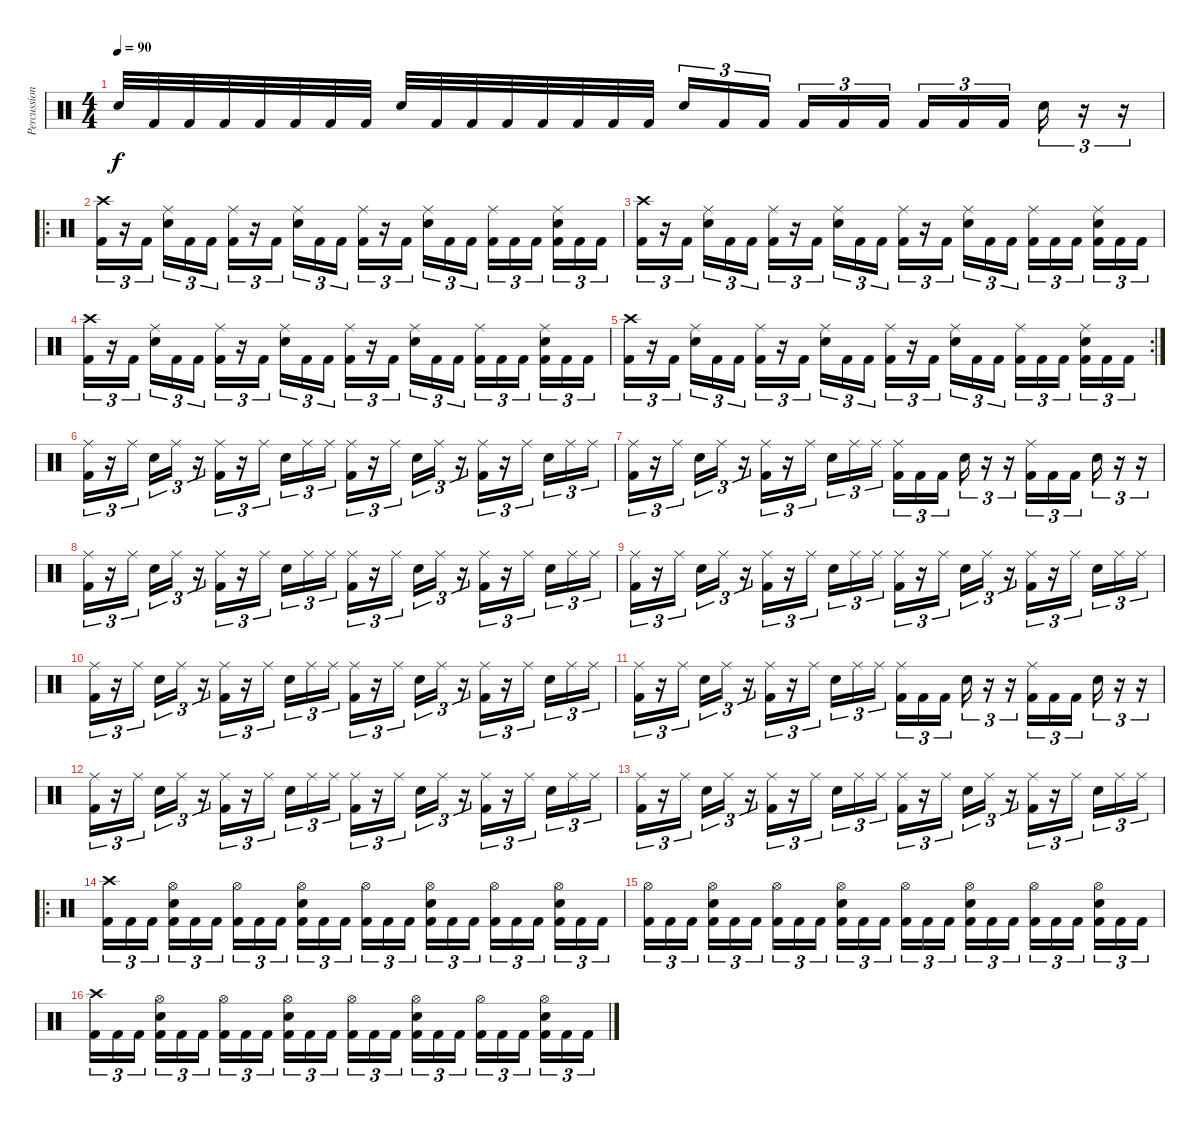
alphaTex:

\track ("Percussion" "Percussion") {instrument percussion}
\staff {score}
\articulation defaults
\ts (4 4)
\tempo 90
\clef neutral
\ks c "Electric Snare (hit)".32{dy f} "Kick (hit) 2".32 "Kick (hit) 2".32 "Kick (hit) 2".32 "Kick (hit) 2".32 "Kick (hit) 2".32 "Kick (hit) 2".32 "Kick (hit) 2".32 "Electric Snare (hit)".32 "Kick (hit) 2".32 "Kick (hit) 2".32 "Kick (hit) 2".32 "Kick (hit) 2".32 "Kick (hit) 2".32 "Kick (hit) 2".32 "Kick (hit) 2".32 "Electric Snare (hit)".16{tu (3 2)} "Kick (hit) 2".16{tu (3 2)} "Kick (hit) 2".16{tu (3 2)} "Kick (hit) 2".16{tu (3 2)} "Kick (hit) 2".16{tu (3 2)} "Kick (hit) 2".16{tu (3 2)} "Kick (hit) 2".16{tu (3 2)} "Kick (hit) 2".16{tu (3 2)} "Kick (hit) 2".16{tu (3 2)} "Electric Snare (hit)".16{tu (3 2)}
r.16{tu (3 2)} r.16{tu (3 2)} |
\ro
("Crash high (hit)" "Kick (hit) 2").16{tu (3 2)} r.16{tu (3 2)} "Kick (hit) 2".16{tu (3 2)} ("Ride (middle)" "Electric Snare (hit)").16{tu (3 2)} "Kick (hit) 2".16{tu (3 2)} "Kick (hit) 2".16{tu (3 2)} ("Ride (middle)" "Kick (hit) 2").16{tu (3 2)} r.16{tu (3 2)} "Kick (hit) 2".16{tu (3 2)} ("Ride (middle)" "Electric Snare (hit)").16{tu (3 2)} "Kick (hit) 2".16{tu (3 2)} "Kick (hit) 2".16{tu (3 2)} ("Ride (middle)" "Kick (hit) 2").16{tu (3 2)} r.16{tu (3 2)} "Kick (hit) 2".16{tu (3 2)} ("Ride (middle)" "Electric Snare (hit)").16{tu (3 2)} "Kick (hit) 2".16{tu (3 2)} "Kick (hit) 2".16{tu (3 2)} ("Ride (middle)" "Kick (hit) 2").16{tu (3 2)} "Kick (hit) 2".16{tu (3 2)} "Kick (hit) 2".16{tu (3 2)} ("Ride (middle)" "Electric Snare (hit)" "Kick (hit) 2").16{tu (3 2)} "Kick (hit) 2".16{tu (3 2)} "Kick (hit) 2".16{tu (3 2)} |
("Crash high (hit)" "Kick (hit) 2").16{tu (3 2)} r.16{tu (3 2)} "Kick (hit) 2".16{tu (3 2)} ("Ride (middle)" "Electric Snare (hit)").16{tu (3 2)} "Kick (hit) 2".16{tu (3 2)} "Kick (hit) 2".16{tu (3 2)} ("Ride (middle)" "Kick (hit) 2").16{tu (3 2)} r.16{tu (3 2)} "Kick (hit) 2".16{tu (3 2)} ("Ride (middle)" "Electric Snare (hit)").16{tu (3 2)} "Kick (hit) 2".16{tu (3 2)} "Kick (hit) 2".16{tu (3 2)} ("Ride (middle)" "Kick (hit) 2").16{tu (3 2)} r.16{tu (3 2)} "Kick (hit) 2".16{tu (3 2)} ("Ride (middle)" "Electric Snare (hit)").16{tu (3 2)} "Kick (hit) 2".16{tu (3 2)} "Kick (hit) 2".16{tu (3 2)} ("Ride (middle)" "Kick (hit) 2").16{tu (3 2)} "Kick (hit) 2".16{tu (3 2)} "Kick (hit) 2".16{tu (3 2)} ("Ride (middle)" "Electric Snare (hit)" "Kick (hit) 2").16{tu (3 2)} "Kick (hit) 2".16{tu (3 2)} "Kick (hit) 2".16{tu (3 2)} |
("Crash high (hit)" "Kick (hit) 2").16{tu (3 2)} r.16{tu (3 2)} "Kick (hit) 2".16{tu (3 2)} ("Ride (middle)" "Electric Snare (hit)").16{tu (3 2)} "Kick (hit) 2".16{tu (3 2)} "Kick (hit) 2".16{tu (3 2)} ("Ride (middle)" "Kick (hit) 2").16{tu (3 2)} r.16{tu (3 2)} "Kick (hit) 2".16{tu (3 2)} ("Ride (middle)" "Electric Snare (hit)").16{tu (3 2)} "Kick (hit) 2".16{tu (3 2)} "Kick (hit) 2".16{tu (3 2)} ("Ride (middle)" "Kick (hit) 2").16{tu (3 2)} r.16{tu (3 2)} "Kick (hit) 2".16{tu (3 2)} ("Ride (middle)" "Electric Snare (hit)").16{tu (3 2)} "Kick (hit) 2".16{tu (3 2)} "Kick (hit) 2".16{tu (3 2)} ("Ride (middle)" "Kick (hit) 2").16{tu (3 2)} "Kick (hit) 2".16{tu (3 2)} "Kick (hit) 2".16{tu (3 2)} ("Ride (middle)" "Electric Snare (hit)" "Kick (hit) 2").16{tu (3 2)} "Kick (hit) 2".16{tu (3 2)} "Kick (hit) 2".16{tu (3 2)} |
\rc 2
("Crash high (hit)" "Kick (hit) 2").16{tu (3 2)} r.16{tu (3 2)} "Kick (hit) 2".16{tu (3 2)} ("Ride (middle)" "Electric Snare (hit)").16{tu (3 2)} "Kick (hit) 2".16{tu (3 2)} "Kick (hit) 2".16{tu (3 2)} ("Ride (middle)" "Kick (hit) 2").16{tu (3 2)} r.16{tu (3 2)} "Kick (hit) 2".16{tu (3 2)} ("Ride (middle)" "Electric Snare (hit)").16{tu (3 2)} "Kick (hit) 2".16{tu (3 2)} "Kick (hit) 2".16{tu (3 2)} ("Ride (middle)" "Kick (hit) 2").16{tu (3 2)} r.16{tu (3 2)} "Kick (hit) 2".16{tu (3 2)} ("Ride (middle)" "Electric Snare (hit)").16{tu (3 2)} "Kick (hit) 2".16{tu (3 2)} "Kick (hit) 2".16{tu (3 2)} ("Ride (middle)" "Kick (hit) 2").16{tu (3 2)} "Kick (hit) 2".16{tu (3 2)} "Kick (hit) 2".16{tu (3 2)} ("Ride (middle)" "Electric Snare (hit)" "Kick (hit) 2").16{tu (3 2)} "Kick (hit) 2".16{tu (3 2)} "Kick (hit) 2".16{tu (3 2)} |
("Ride (middle)" "Kick (hit) 2").16{tu (3 2)} r.16{tu (3 2)} "Ride (middle)".16{tu (3 2)} "Electric Snare (hit)".16{tu (3 2)} "Ride (middle)".16{tu (3 2)} r.16{tu (3 2)} ("Ride (middle)" "Kick (hit) 2").16{tu (3 2)} r.16{tu (3 2)} "Ride (middle)".16{tu (3 2)} "Electric Snare (hit)".16{tu (3 2)} "Ride (middle)".16{tu (3 2)} "Ride (middle)".16{tu (3 2)} ("Ride (middle)" "Kick (hit) 2").16{tu (3 2)} r.16{tu (3 2)} "Ride (middle)".16{tu (3 2)} "Electric Snare (hit)".16{tu (3 2)} "Ride (middle)".16{tu (3 2)} r.16{tu (3 2)} ("Ride (middle)" "Kick (hit) 2").16{tu (3 2)} r.16{tu (3 2)} "Ride (middle)".16{tu (3 2)} "Electric Snare (hit)".16{tu (3 2)} "Ride (middle)".16{tu (3 2)} "Ride (middle)".16{tu (3 2)} |
("Ride (middle)" "Kick (hit) 2").16{tu (3 2)} r.16{tu (3 2)} "Ride (middle)".16{tu (3 2)} "Electric Snare (hit)".16{tu (3 2)} "Ride (middle)".16{tu (3 2)} r.16{tu (3 2)} ("Ride (middle)" "Kick (hit) 2").16{tu (3 2)} r.16{tu (3 2)} "Ride (middle)".16{tu (3 2)} "Electric Snare (hit)".16{tu (3 2)} "Ride (middle)".16{tu (3 2)} "Ride (middle)".16{tu (3 2)} ("Ride (middle)" "Kick (hit) 2").16{tu (3 2)} "Kick (hit) 2".16{tu (3 2)} "Kick (hit) 2".16{tu (3 2)} "Electric Snare (hit)".16{tu (3 2)} r.16{tu (3 2)} r.16{tu (3 2)} ("Ride (middle)" "Kick (hit) 2").16{tu (3 2)} "Kick (hit) 2".16{tu (3 2)} "Kick (hit) 2".16{tu (3 2)} "Electric Snare (hit)".16{tu (3 2)} r.16{tu (3 2)} r.16{tu (3 2)} |
("Ride (middle)" "Kick (hit) 2").16{tu (3 2)} r.16{tu (3 2)} "Ride (middle)".16{tu (3 2)} "Electric Snare (hit)".16{tu (3 2)} "Ride (middle)".16{tu (3 2)} r.16{tu (3 2)} ("Ride (middle)" "Kick (hit) 2").16{tu (3 2)} r.16{tu (3 2)} "Ride (middle)".16{tu (3 2)} "Electric Snare (hit)".16{tu (3 2)} "Ride (middle)".16{tu (3 2)} "Ride (middle)".16{tu (3 2)} ("Ride (middle)" "Kick (hit) 2").16{tu (3 2)} r.16{tu (3 2)} "Ride (middle)".16{tu (3 2)} "Electric Snare (hit)".16{tu (3 2)} "Ride (middle)".16{tu (3 2)} r.16{tu (3 2)} ("Ride (middle)" "Kick (hit) 2").16{tu (3 2)} r.16{tu (3 2)} "Ride (middle)".16{tu (3 2)} "Electric Snare (hit)".16{tu (3 2)} "Ride (middle)".16{tu (3 2)} "Ride (middle)".16{tu (3 2)} |
("Ride (middle)" "Kick (hit) 2").16{tu (3 2)} r.16{tu (3 2)} "Ride (middle)".16{tu (3 2)} "Electric Snare (hit)".16{tu (3 2)} "Ride (middle)".16{tu (3 2)} r.16{tu (3 2)} ("Ride (middle)" "Kick (hit) 2").16{tu (3 2)} r.16{tu (3 2)} "Ride (middle)".16{tu (3 2)} "Electric Snare (hit)".16{tu (3 2)} "Ride (middle)".16{tu (3 2)} "Ride (middle)".16{tu (3 2)} ("Ride (middle)" "Kick (hit) 2").16{tu (3 2)} r.16{tu (3 2)} "Ride (middle)".16{tu (3 2)} "Electric Snare (hit)".16{tu (3 2)} "Ride (middle)".16{tu (3 2)} r.16{tu (3 2)} ("Ride (middle)" "Kick (hit) 2").16{tu (3 2)} r.16{tu (3 2)} "Ride (middle)".16{tu (3 2)} "Electric Snare (hit)".16{tu (3 2)} "Ride (middle)".16{tu (3 2)} "Ride (middle)".16{tu (3 2)} |
("Ride (middle)" "Kick (hit) 2").16{tu (3 2)} r.16{tu (3 2)} "Ride (middle)".16{tu (3 2)} "Electric Snare (hit)".16{tu (3 2)} "Ride (middle)".16{tu (3 2)} r.16{tu (3 2)} ("Ride (middle)" "Kick (hit) 2").16{tu (3 2)} r.16{tu (3 2)} "Ride (middle)".16{tu (3 2)} "Electric Snare (hit)".16{tu (3 2)} "Ride (middle)".16{tu (3 2)} "Ride (middle)".16{tu (3 2)} ("Ride (middle)" "Kick (hit) 2").16{tu (3 2)} r.16{tu (3 2)} "Ride (middle)".16{tu (3 2)} "Electric Snare (hit)".16{tu (3 2)} "Ride (middle)".16{tu (3 2)} r.16{tu (3 2)} ("Ride (middle)" "Kick (hit) 2").16{tu (3 2)} r.16{tu (3 2)} "Ride (middle)".16{tu (3 2)} "Electric Snare (hit)".16{tu (3 2)} "Ride (middle)".16{tu (3 2)} "Ride (middle)".16{tu (3 2)} |
("Ride (middle)" "Kick (hit) 2").16{tu (3 2)} r.16{tu (3 2)} "Ride (middle)".16{tu (3 2)} "Electric Snare (hit)".16{tu (3 2)} "Ride (middle)".16{tu (3 2)} r.16{tu (3 2)} ("Ride (middle)" "Kick (hit) 2").16{tu (3 2)} r.16{tu (3 2)} "Ride (middle)".16{tu (3 2)} "Electric Snare (hit)".16{tu (3 2)} "Ride (middle)".16{tu (3 2)} "Ride (middle)".16{tu (3 2)} ("Ride (middle)" "Kick (hit) 2").16{tu (3 2)} "Kick (hit) 2".16{tu (3 2)} "Kick (hit) 2".16{tu (3 2)} "Electric Snare (hit)".16{tu (3 2)} r.16{tu (3 2)} r.16{tu (3 2)} ("Ride (middle)" "Kick (hit) 2").16{tu (3 2)} "Kick (hit) 2".16{tu (3 2)} "Kick (hit) 2".16{tu (3 2)} "Electric Snare (hit)".16{tu (3 2)} r.16{tu (3 2)} r.16{tu (3 2)} |
("Ride (middle)" "Kick (hit) 2").16{tu (3 2)} r.16{tu (3 2)} "Ride (middle)".16{tu (3 2)} "Electric Snare (hit)".16{tu (3 2)} "Ride (middle)".16{tu (3 2)} r.16{tu (3 2)} ("Ride (middle)" "Kick (hit) 2").16{tu (3 2)} r.16{tu (3 2)} "Ride (middle)".16{tu (3 2)} "Electric Snare (hit)".16{tu (3 2)} "Ride (middle)".16{tu (3 2)} "Ride (middle)".16{tu (3 2)} ("Ride (middle)" "Kick (hit) 2").16{tu (3 2)} r.16{tu (3 2)} "Ride (middle)".16{tu (3 2)} "Electric Snare (hit)".16{tu (3 2)} "Ride (middle)".16{tu (3 2)} r.16{tu (3 2)} ("Ride (middle)" "Kick (hit) 2").16{tu (3 2)} r.16{tu (3 2)} "Ride (middle)".16{tu (3 2)} "Electric Snare (hit)".16{tu (3 2)} "Ride (middle)".16{tu (3 2)} "Ride (middle)".16{tu (3 2)} |
("Ride (middle)" "Kick (hit) 2").16{tu (3 2)} r.16{tu (3 2)} "Ride (middle)".16{tu (3 2)} "Electric Snare (hit)".16{tu (3 2)} "Ride (middle)".16{tu (3 2)} r.16{tu (3 2)} ("Ride (middle)" "Kick (hit) 2").16{tu (3 2)} r.16{tu (3 2)} "Ride (middle)".16{tu (3 2)} "Electric Snare (hit)".16{tu (3 2)} "Ride (middle)".16{tu (3 2)} "Ride (middle)".16{tu (3 2)} ("Ride (middle)" "Kick (hit) 2").16{tu (3 2)} r.16{tu (3 2)} "Ride (middle)".16{tu (3 2)} "Electric Snare (hit)".16{tu (3 2)} "Ride (middle)".16{tu (3 2)} r.16{tu (3 2)} ("Ride (middle)" "Kick (hit) 2").16{tu (3 2)} r.16{tu (3 2)} "Ride (middle)".16{tu (3 2)} "Electric Snare (hit)".16{tu (3 2)} "Ride (middle)".16{tu (3 2)} "Ride (middle)".16{tu (3 2)} |
\ro
("Crash high (hit)" "Kick (hit) 2").16{tu (3 2)} "Kick (hit) 2".16{tu (3 2)} "Kick (hit) 2".16{tu (3 2)} ("Hi-Hat (open)" "Electric Snare (hit)" "Kick (hit) 2").16{tu (3 2)} "Kick (hit) 2".16{tu (3 2)} "Kick (hit) 2".16{tu (3 2)} ("Hi-Hat (open)" "Kick (hit) 2").16{tu (3 2)} "Kick (hit) 2".16{tu (3 2)} "Kick (hit) 2".16{tu (3 2)} ("Hi-Hat (open)" "Electric Snare (hit)" "Kick (hit) 2").16{tu (3 2)} "Kick (hit) 2".16{tu (3 2)} "Kick (hit) 2".16{tu (3 2)} ("Hi-Hat (open)" "Kick (hit) 2").16{tu (3 2)} "Kick (hit) 2".16{tu (3 2)} "Kick (hit) 2".16{tu (3 2)} ("Hi-Hat (open)" "Electric Snare (hit)" "Kick (hit) 2").16{tu (3 2)} "Kick (hit) 2".16{tu (3 2)} "Kick (hit) 2".16{tu (3 2)} ("Hi-Hat (open)" "Kick (hit) 2").16{tu (3 2)} "Kick (hit) 2".16{tu (3 2)} "Kick (hit) 2".16{tu (3 2)} ("Hi-Hat (open)" "Electric Snare (hit)" "Kick (hit) 2").16{tu (3 2)} "Kick (hit) 2".16{tu (3 2)} "Kick (hit) 2".16{tu (3 2)} |
("Hi-Hat (open)" "Kick (hit) 2").16{tu (3 2)} "Kick (hit) 2".16{tu (3 2)} "Kick (hit) 2".16{tu (3 2)} ("Hi-Hat (open)" "Electric Snare (hit)" "Kick (hit) 2").16{tu (3 2)} "Kick (hit) 2".16{tu (3 2)} "Kick (hit) 2".16{tu (3 2)} ("Hi-Hat (open)" "Kick (hit) 2").16{tu (3 2)} "Kick (hit) 2".16{tu (3 2)} "Kick (hit) 2".16{tu (3 2)} ("Hi-Hat (open)" "Electric Snare (hit)" "Kick (hit) 2").16{tu (3 2)} "Kick (hit) 2".16{tu (3 2)} "Kick (hit) 2".16{tu (3 2)} ("Hi-Hat (open)" "Kick (hit) 2").16{tu (3 2)} "Kick (hit) 2".16{tu (3 2)} "Kick (hit) 2".16{tu (3 2)} ("Hi-Hat (open)" "Electric Snare (hit)" "Kick (hit) 2").16{tu (3 2)} "Kick (hit) 2".16{tu (3 2)} "Kick (hit) 2".16{tu (3 2)} ("Hi-Hat (open)" "Kick (hit) 2").16{tu (3 2)} "Kick (hit) 2".16{tu (3 2)} "Kick (hit) 2".16{tu (3 2)} ("Hi-Hat (open)" "Electric Snare (hit)" "Kick (hit) 2").16{tu (3 2)} "Kick (hit) 2".16{tu (3 2)} "Kick (hit) 2".16{tu (3 2)} |
("Crash high (hit)" "Kick (hit) 2").16{tu (3 2)} "Kick (hit) 2".16{tu (3 2)} "Kick (hit) 2".16{tu (3 2)} ("Hi-Hat (open)" "Electric Snare (hit)" "Kick (hit) 2").16{tu (3 2)} "Kick (hit) 2".16{tu (3 2)} "Kick (hit) 2".16{tu (3 2)} ("Hi-Hat (open)" "Kick (hit) 2").16{tu (3 2)} "Kick (hit) 2".16{tu (3 2)} "Kick (hit) 2".16{tu (3 2)} ("Hi-Hat (open)" "Electric Snare (hit)" "Kick (hit) 2").16{tu (3 2)} "Kick (hit) 2".16{tu (3 2)} "Kick (hit) 2".16{tu (3 2)} ("Hi-Hat (open)" "Kick (hit) 2").16{tu (3 2)} "Kick (hit) 2".16{tu (3 2)} "Kick (hit) 2".16{tu (3 2)} ("Hi-Hat (open)" "Electric Snare (hit)" "Kick (hit) 2").16{tu (3 2)} "Kick (hit) 2".16{tu (3 2)} "Kick (hit) 2".16{tu (3 2)} ("Hi-Hat (open)" "Kick (hit) 2").16{tu (3 2)} "Kick (hit) 2".16{tu (3 2)} "Kick (hit) 2".16{tu (3 2)} ("Hi-Hat (open)" "Electric Snare (hit)" "Kick (hit) 2").16{tu (3 2)} "Kick (hit) 2".16{tu (3 2)} "Kick (hit) 2".16{tu (3 2)}
